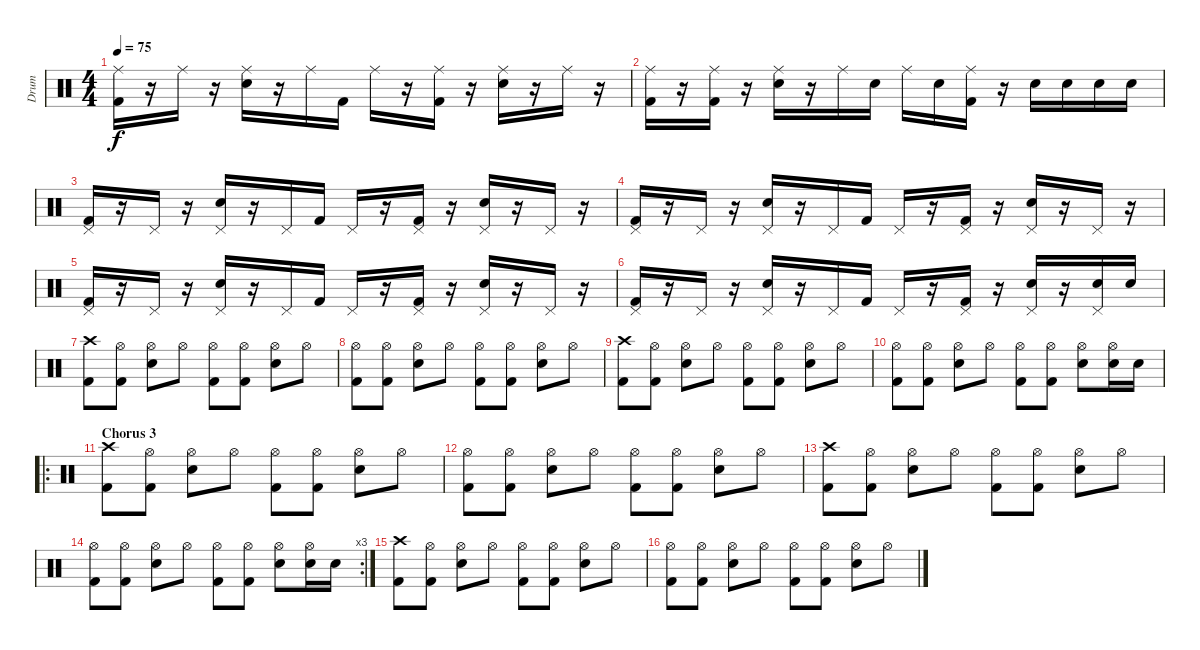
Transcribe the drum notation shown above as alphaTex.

\track ("Drum" "Drum") {instrument percussion}
\staff {score}
\articulation defaults
\ts (4 4)
\tempo 75
\clef neutral
\ks c
("Ride (middle)" "Kick (hit) 2").16{dy f} r.16 "Ride (middle)".16 r.16 ("Ride (middle)" "Electric Snare (hit)").16 r.16 "Ride (middle)".16 "Kick (hit) 2".16 "Ride (middle)".16 r.16 ("Ride (middle)" "Kick (hit) 2").16 r.16 ("Ride (middle)" "Electric Snare (hit)").16 r.16 "Ride (middle)".16 r.16 |
("Ride (middle)" "Kick (hit) 2").16 r.16 ("Ride (middle)" "Kick (hit) 2").16 r.16 ("Ride (middle)" "Electric Snare (hit)").16 r.16 "Ride (middle)".16 "Electric Snare (hit)".16 "Ride (middle)".16 "Electric Snare (hit)".16 ("Ride (middle)" "Kick (hit) 2").16 r.16 "Electric Snare (hit)".16 "Electric Snare (hit)".16 "Electric Snare (hit)".16 "Electric Snare (hit)".16 |
("Pedal Hi-Hat (hit)" "Kick (hit) 2").16 r.16 "Pedal Hi-Hat (hit)".16 r.16 ("Pedal Hi-Hat (hit)" "Electric Snare (hit)").16 r.16 "Pedal Hi-Hat (hit)".16 "Kick (hit) 2".16 "Pedal Hi-Hat (hit)".16 r.16 ("Pedal Hi-Hat (hit)" "Kick (hit) 2").16 r.16 ("Pedal Hi-Hat (hit)" "Electric Snare (hit)").16 r.16 "Pedal Hi-Hat (hit)".16 r.16 |
("Pedal Hi-Hat (hit)" "Kick (hit) 2").16 r.16 "Pedal Hi-Hat (hit)".16 r.16 ("Pedal Hi-Hat (hit)" "Electric Snare (hit)").16 r.16 "Pedal Hi-Hat (hit)".16 "Kick (hit) 2".16 "Pedal Hi-Hat (hit)".16 r.16 ("Pedal Hi-Hat (hit)" "Kick (hit) 2").16 r.16 ("Pedal Hi-Hat (hit)" "Electric Snare (hit)").16 r.16 "Pedal Hi-Hat (hit)".16 r.16 |
("Pedal Hi-Hat (hit)" "Kick (hit) 2").16 r.16 "Pedal Hi-Hat (hit)".16 r.16 ("Pedal Hi-Hat (hit)" "Electric Snare (hit)").16 r.16 "Pedal Hi-Hat (hit)".16 "Kick (hit) 2".16 "Pedal Hi-Hat (hit)".16 r.16 ("Pedal Hi-Hat (hit)" "Kick (hit) 2").16 r.16 ("Pedal Hi-Hat (hit)" "Electric Snare (hit)").16 r.16 "Pedal Hi-Hat (hit)".16 r.16 |
("Pedal Hi-Hat (hit)" "Kick (hit) 2").16 r.16 "Pedal Hi-Hat (hit)".16 r.16 ("Pedal Hi-Hat (hit)" "Electric Snare (hit)").16 r.16 "Pedal Hi-Hat (hit)".16 "Kick (hit) 2".16 "Pedal Hi-Hat (hit)".16 r.16 ("Pedal Hi-Hat (hit)" "Kick (hit) 2").16 r.16 ("Pedal Hi-Hat (hit)" "Electric Snare (hit)").16 r.16 ("Pedal Hi-Hat (hit)" "Electric Snare (hit)").16 "Electric Snare (hit)".16 |
("Crash high (hit)" "Kick (hit) 2").8 ("Hi-Hat (open)" "Kick (hit) 2").8 ("Hi-Hat (open)" "Electric Snare (hit)").8 "Hi-Hat (open)".8 ("Hi-Hat (open)" "Kick (hit) 2").8 ("Hi-Hat (open)" "Kick (hit) 2").8 ("Hi-Hat (open)" "Electric Snare (hit)").8 "Hi-Hat (open)".8 |
("Hi-Hat (open)" "Kick (hit) 2").8 ("Hi-Hat (open)" "Kick (hit) 2").8 ("Hi-Hat (open)" "Electric Snare (hit)").8 "Hi-Hat (open)".8 ("Hi-Hat (open)" "Kick (hit) 2").8 ("Hi-Hat (open)" "Kick (hit) 2").8 ("Hi-Hat (open)" "Electric Snare (hit)").8 "Hi-Hat (open)".8 |
("Crash high (hit)" "Kick (hit) 2").8 ("Hi-Hat (open)" "Kick (hit) 2").8 ("Hi-Hat (open)" "Electric Snare (hit)").8 "Hi-Hat (open)".8 ("Hi-Hat (open)" "Kick (hit) 2").8 ("Hi-Hat (open)" "Kick (hit) 2").8 ("Hi-Hat (open)" "Electric Snare (hit)").8 "Hi-Hat (open)".8 |
("Hi-Hat (open)" "Kick (hit) 2").8 ("Hi-Hat (open)" "Kick (hit) 2").8 ("Hi-Hat (open)" "Electric Snare (hit)").8 "Hi-Hat (open)".8 ("Hi-Hat (open)" "Kick (hit) 2").8 ("Hi-Hat (open)" "Kick (hit) 2").8 ("Hi-Hat (open)" "Electric Snare (hit)").8 ("Hi-Hat (open)" "Electric Snare (hit)").16 "Electric Snare (hit)".16 |
\ro
\section ("" "Chorus 3")
("Crash high (hit)" "Kick (hit) 2").8 ("Hi-Hat (open)" "Kick (hit) 2").8 ("Hi-Hat (open)" "Electric Snare (hit)").8 "Hi-Hat (open)".8 ("Hi-Hat (open)" "Kick (hit) 2").8 ("Hi-Hat (open)" "Kick (hit) 2").8 ("Hi-Hat (open)" "Electric Snare (hit)").8 "Hi-Hat (open)".8 |
("Hi-Hat (open)" "Kick (hit) 2").8 ("Hi-Hat (open)" "Kick (hit) 2").8 ("Hi-Hat (open)" "Electric Snare (hit)").8 "Hi-Hat (open)".8 ("Hi-Hat (open)" "Kick (hit) 2").8 ("Hi-Hat (open)" "Kick (hit) 2").8 ("Hi-Hat (open)" "Electric Snare (hit)").8 "Hi-Hat (open)".8 |
("Crash high (hit)" "Kick (hit) 2").8 ("Hi-Hat (open)" "Kick (hit) 2").8 ("Hi-Hat (open)" "Electric Snare (hit)").8 "Hi-Hat (open)".8 ("Hi-Hat (open)" "Kick (hit) 2").8 ("Hi-Hat (open)" "Kick (hit) 2").8 ("Hi-Hat (open)" "Electric Snare (hit)").8 "Hi-Hat (open)".8 |
\rc 3
("Hi-Hat (open)" "Kick (hit) 2").8 ("Hi-Hat (open)" "Kick (hit) 2").8 ("Hi-Hat (open)" "Electric Snare (hit)").8 "Hi-Hat (open)".8 ("Hi-Hat (open)" "Kick (hit) 2").8 ("Hi-Hat (open)" "Kick (hit) 2").8 ("Hi-Hat (open)" "Electric Snare (hit)").8 ("Hi-Hat (open)" "Electric Snare (hit)").16 "Electric Snare (hit)".16 |
("Crash high (hit)" "Kick (hit) 2").8 ("Hi-Hat (open)" "Kick (hit) 2").8 ("Hi-Hat (open)" "Electric Snare (hit)").8 "Hi-Hat (open)".8 ("Hi-Hat (open)" "Kick (hit) 2").8 ("Hi-Hat (open)" "Kick (hit) 2").8 ("Hi-Hat (open)" "Electric Snare (hit)").8 "Hi-Hat (open)".8 |
("Hi-Hat (open)" "Kick (hit) 2").8 ("Hi-Hat (open)" "Kick (hit) 2").8 ("Hi-Hat (open)" "Electric Snare (hit)").8 "Hi-Hat (open)".8 ("Hi-Hat (open)" "Kick (hit) 2").8 ("Hi-Hat (open)" "Kick (hit) 2").8 ("Hi-Hat (open)" "Electric Snare (hit)").8 "Hi-Hat (open)".8
